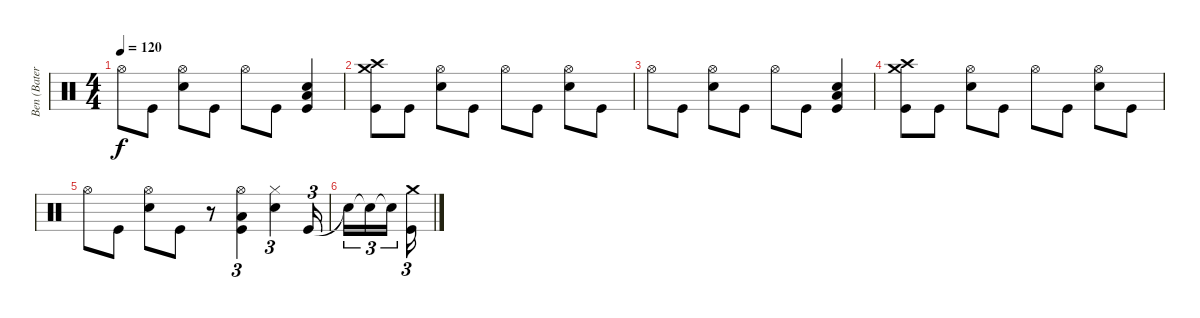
\track ("Ben (Bateria)" "Ben (Bater") {instrument percussion}
\staff {score}
\articulation defaults
\ts (4 4)
\tempo 120
\clef neutral
\ks c "Hi-Hat (open)".8{dy f} "Kick (hit)".8
("Snare (hit) 2" "Hi-Hat (open)").8 "Kick (hit)".8 "Hi-Hat (open)".8 "Kick (hit)".8 ("Kick (hit)" "Snare (hit) 2" "Low Floor Tom (hit)").4 |
("Kick (hit)" "Crash high (hit)" "Crash medium (hit)").8 "Kick (hit)".8 ("Snare (hit) 2" "Hi-Hat (open)").8 "Kick (hit)".8 "Hi-Hat (open)".8 "Kick (hit)".8 ("Snare (hit) 2" "Hi-Hat (open)").8 "Kick (hit)".8 |
"Hi-Hat (open)".8 "Kick (hit)".8 ("Snare (hit) 2" "Hi-Hat (open)").8 "Kick (hit)".8 "Hi-Hat (open)".8 "Kick (hit)".8 ("Kick (hit)" "Snare (hit) 2" "Low Floor Tom (hit)").4 |
("Kick (hit)" "Crash high (hit)" "Crash medium (hit)").8 "Kick (hit)".8 ("Snare (hit) 2" "Hi-Hat (open)").8 "Kick (hit)".8 "Hi-Hat (open)".8 "Kick (hit)".8 ("Snare (hit) 2" "Hi-Hat (open)").8 "Kick (hit)".8 |
"Hi-Hat (open)".8 "Kick (hit)".8 ("Snare (hit) 2" "Hi-Hat (open)").8 "Kick (hit)".8 r.8 ("Kick (hit)" "Low Floor Tom (hit)" "Hi-Hat (open)").4{tu (3 2)} ("Snare (hit) 2" "Hi-Hat (closed)").4{tu (3 2)} "Kick (hit)".16{tu (3 2)} |
"Snare (hit)"{t}.16{tu (3 2)} "Snare (hit)"{t}.16{tu (3 2)} "Snare (hit)"{t}.16{tu (3 2)} ("Kick (hit)" "Crash medium (hit)").16{tu (3 2)}
